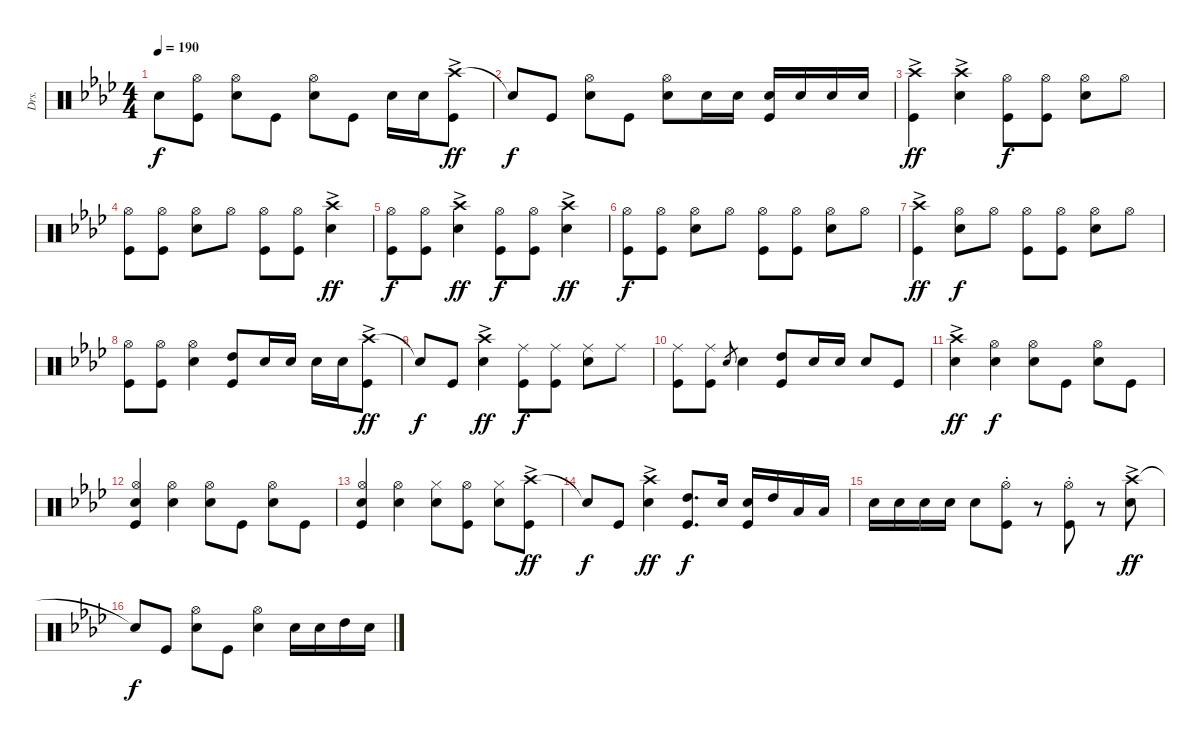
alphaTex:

\track ("Drs." "Drs.") {instrument percussion}
\staff {score}
\articulation defaults
\ts (4 4)
\tempo 190
\clef neutral
\ks ab "Snare (hit)"{t}.8{dy f}
("Hi-Hat (open)" "Kick (hit)").8 ("Hi-Hat (open)" "Snare (hit) 2").8 "Kick (hit)".8 ("Hi-Hat (open)" "Snare (hit) 2").8 "Kick (hit)".8 "Snare (hit) 2".16 "Snare (hit) 2".16 ("Crash high (hit)"{ac} "Kick (hit)").8{dy ff} |
"Snare (hit)"{t}.8{dy f} "Kick (hit)".8 ("Hi-Hat (open)" "Snare (hit) 2").8 "Kick (hit)".8 ("Hi-Hat (open)" "Snare (hit) 2").8 "Snare (hit) 2".16 "Snare (hit) 2".16 ("Snare (hit) 2" "Kick (hit)").16 "Snare (hit) 2".16 "Snare (hit) 2".16 "Snare (hit) 2".16 |
("Crash high (hit)"{ac} "Kick (hit)").4{dy ff} ("Crash high (hit)"{ac} "Snare (hit) 2").4 ("Hi-Hat (open)" "Kick (hit)").8{dy f} ("Hi-Hat (open)" "Kick (hit)").8 ("Hi-Hat (open)" "Snare (hit) 2").8 "Hi-Hat (open)".8 |
("Hi-Hat (open)" "Kick (hit)").8 ("Hi-Hat (open)" "Kick (hit)").8 ("Hi-Hat (open)" "Snare (hit) 2").8 "Hi-Hat (open)".8 ("Hi-Hat (open)" "Kick (hit)").8 ("Hi-Hat (open)" "Kick (hit)").8 ("Crash high (hit)"{ac} "Snare (hit) 2").4{dy ff} |
("Hi-Hat (open)" "Kick (hit)").8{dy f} ("Hi-Hat (open)" "Kick (hit)").8 ("Crash high (hit)"{ac} "Snare (hit) 2").4{dy ff} ("Hi-Hat (open)" "Kick (hit)").8{dy f} ("Hi-Hat (open)" "Kick (hit)").8 ("Crash high (hit)"{ac} "Snare (hit) 2").4{dy ff} |
("Hi-Hat (open)" "Kick (hit)").8{dy f} ("Hi-Hat (open)" "Kick (hit)").8 ("Hi-Hat (open)" "Snare (hit) 2").8 "Hi-Hat (open)".8 ("Hi-Hat (open)" "Kick (hit)").8 ("Hi-Hat (open)" "Kick (hit)").8 ("Hi-Hat (open)" "Snare (hit) 2").8 "Hi-Hat (open)".8 |
("Crash high (hit)"{ac} "Kick (hit)").4{dy ff} ("Hi-Hat (open)" "Snare (hit) 2").8{dy f} "Hi-Hat (open)".8 ("Hi-Hat (open)" "Kick (hit)").8 ("Hi-Hat (open)" "Kick (hit)").8 ("Hi-Hat (open)" "Snare (hit) 2").8 "Hi-Hat (open)".8 |
("Hi-Hat (open)" "Kick (hit)").8 ("Hi-Hat (open)" "Kick (hit)").8 ("Hi-Hat (open)" "Snare (hit) 2").4 ("High Tom (hit)" "Kick (hit)").8 "Snare (hit) 2".16 "Snare (hit) 2".16 "Snare (hit) 2".16 "Snare (hit) 2".16 ("Crash high (hit)"{ac} "Kick (hit)").8{dy ff} |
"Snare (hit)"{t}.8{dy f} "Kick (hit)".8 ("Crash high (hit)"{ac} "Snare (hit) 2").4{dy ff} ("Ride (middle)" "Kick (hit)").8{dy f} ("Ride (middle)" "Kick (hit)").8 ("Ride (middle)" "Snare (hit) 2").8 "Ride (middle)".8 |
("Ride (middle)" "Kick (hit)").8 ("Ride (middle)" "Kick (hit)").8 "Snare (hit) 2".8{gr} "Snare (hit) 2".4 ("High Tom (hit)" "Kick (hit)").8 "Snare (hit) 2".16 "Snare (hit) 2".16 "Snare (hit) 2".8 "Kick (hit)".8 |
("Crash high (hit)"{ac} "Snare (hit) 2").4{dy ff} ("Hi-Hat (open)" "Snare (hit) 2").4{dy f} ("Hi-Hat (open)" "Snare (hit) 2").8 "Kick (hit)".8 ("Hi-Hat (open)" "Snare (hit) 2").8 "Kick (hit)".8 |
("Hi-Hat (open)" "Snare (hit) 2" "Kick (hit)").4 ("Hi-Hat (open)" "Snare (hit) 2").4 ("Hi-Hat (open)" "Snare (hit) 2").8 "Kick (hit)".8 ("Hi-Hat (open)" "Snare (hit) 2").8 "Kick (hit)".8 |
("Hi-Hat (open)" "Snare (hit) 2" "Kick (hit)").4 ("Hi-Hat (open)" "Snare (hit) 2").4 ("Hi-Hat (closed)" "Snare (hit) 2").8 ("Hi-Hat (open)" "Kick (hit)").8 ("Hi-Hat (closed)" "Snare (hit) 2").8 ("Crash high (hit)"{ac} "Kick (hit)").8{dy ff} |
"Snare (hit)"{t}.8{dy f} "Kick (hit)".8 ("Crash high (hit)"{ac} "Snare (hit) 2").4{dy ff} ("High Tom (hit)" "Kick (hit)").8{d dy f} "Snare (hit) 2".16 ("Snare (hit) 2" "Kick (hit)").16 "High Tom (hit)".16 "Low Tom (hit)".16 "Low Tom (hit)".16 |
"Snare (hit) 2".16 "Snare (hit) 2".16 "Snare (hit) 2".16 "Snare (hit) 2".16 "Snare (hit) 2".8 ("Hi-Hat (open)"{st} "Kick (hit)"{st}).8 r.8 ("Hi-Hat (open)"{st} "Kick (hit)"{st}).8 r.8 ("Crash high (hit)"{ac} "Snare (hit) 2").8{dy ff} |
"Snare (hit)"{t}.8{dy f} "Kick (hit)".8 ("Hi-Hat (open)" "Snare (hit) 2").8 "Kick (hit)".8 ("Hi-Hat (open)" "Snare (hit) 2").4 "Snare (hit) 2".16 "Snare (hit) 2".16 "High Tom (hit)".16 "Snare (hit) 2".16
